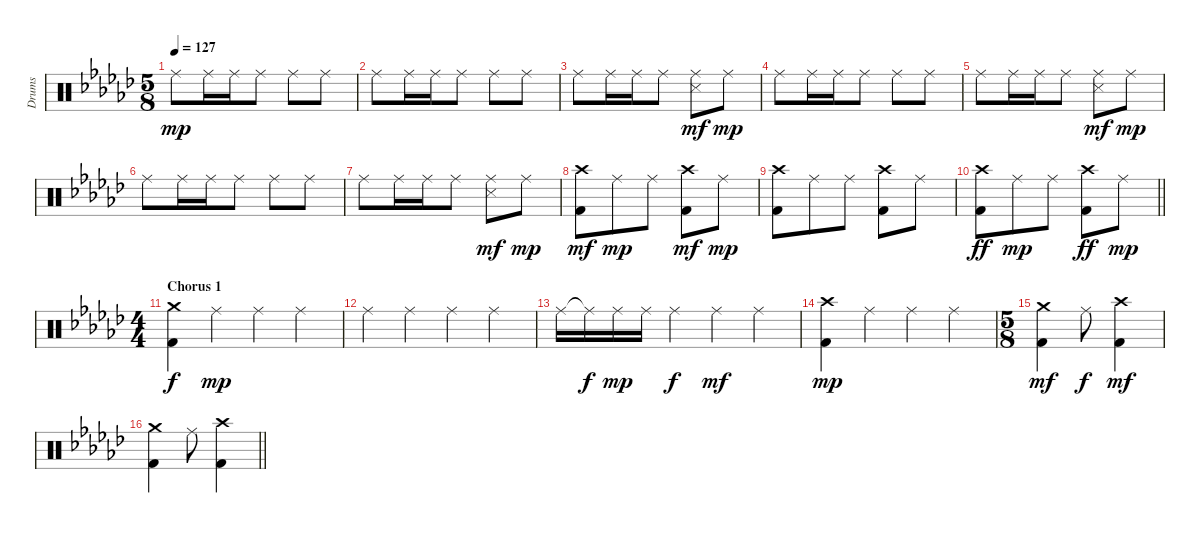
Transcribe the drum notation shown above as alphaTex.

\track ("Drums" "Drums") {instrument percussion}
\staff {score}
\articulation defaults
\ts (5 8)
\tempo 127
\clef neutral
\ks ebminor "Ride (middle)".8{dy mp} "Ride (middle)".16 "Ride (middle)".16 "Ride (middle)".8 "Ride (middle)".8 "Ride (middle)".8
|
"Ride (middle)".8 "Ride (middle)".16 "Ride (middle)".16 "Ride (middle)".8 "Ride (middle)".8 "Ride (middle)".8 |
"Ride (middle)".8 "Ride (middle)".16 "Ride (middle)".16 "Ride (middle)".8 ("Ride (middle)" "Snare (side stick) 3").8{dy mf} "Ride (middle)".8{dy mp} |
"Ride (middle)".8 "Ride (middle)".16 "Ride (middle)".16 "Ride (middle)".8 "Ride (middle)".8 "Ride (middle)".8 |
"Ride (middle)".8 "Ride (middle)".16 "Ride (middle)".16 "Ride (middle)".8 ("Ride (middle)" "Snare (side stick) 3").8{dy mf} "Ride (middle)".8{dy mp} |
"Ride (middle)".8 "Ride (middle)".16 "Ride (middle)".16 "Ride (middle)".8 "Ride (middle)".8 "Ride (middle)".8 |
"Ride (middle)".8 "Ride (middle)".16 "Ride (middle)".16 "Ride (middle)".8 ("Ride (middle)" "Snare (side stick) 3").8{dy mf} "Ride (middle)".8{dy mp} |
("Crash high (hit)" "Kick (hit) 2").8{dy mf} "Ride (middle)".8{dy mp} "Ride (middle)".8 ("Crash high (hit)" "Kick (hit) 2").8{dy mf} "Ride (middle)".8{dy mp} |
("Crash high (hit)" "Kick (hit) 2").8 "Ride (middle)".8 "Ride (middle)".8 ("Crash high (hit)" "Kick (hit) 2").8 "Ride (middle)".8 |
\barLineRight lightlight
("Crash high (hit)" "Kick (hit) 2").8{dy ff} "Ride (middle)".8{dy mp} "Ride (middle)".8 ("Crash high (hit)" "Kick (hit) 2").8{dy ff} "Ride (middle)".8{dy mp} |
\ts (4 4)
\section ("" "Chorus 1")
("Crash medium (hit)" "Kick (hit) 2").4{dy f} "Ride (middle)".4{dy mp} "Ride (middle)".4 "Ride (middle)".4 |
"Ride (middle)".4 "Ride (middle)".4 "Ride (middle)".4 "Ride (middle)".4 |
"Ride (middle)".16 "Ride (middle)"{t}.16{dy f} "Ride (middle)".16{dy mp} "Ride (middle)".16 "Ride (middle)".4{dy f} "Ride (middle)".4{dy mf} "Ride (middle)".4 |
("Crash high (hit)" "Kick (hit) 2").4{dy mp} "Ride (middle)".4 "Ride (middle)".4 "Ride (middle)".4 |
\ts (5 8)
("Crash medium (hit)" "Kick (hit) 2").4{dy mf} "Ride (middle)".8{dy f} ("Crash high (hit)" "Kick (hit) 2").4{dy mf} |
\barLineRight lightlight
("Crash medium (hit)" "Kick (hit) 2").4 "Ride (middle)".8 ("Crash high (hit)" "Kick (hit) 2").4
